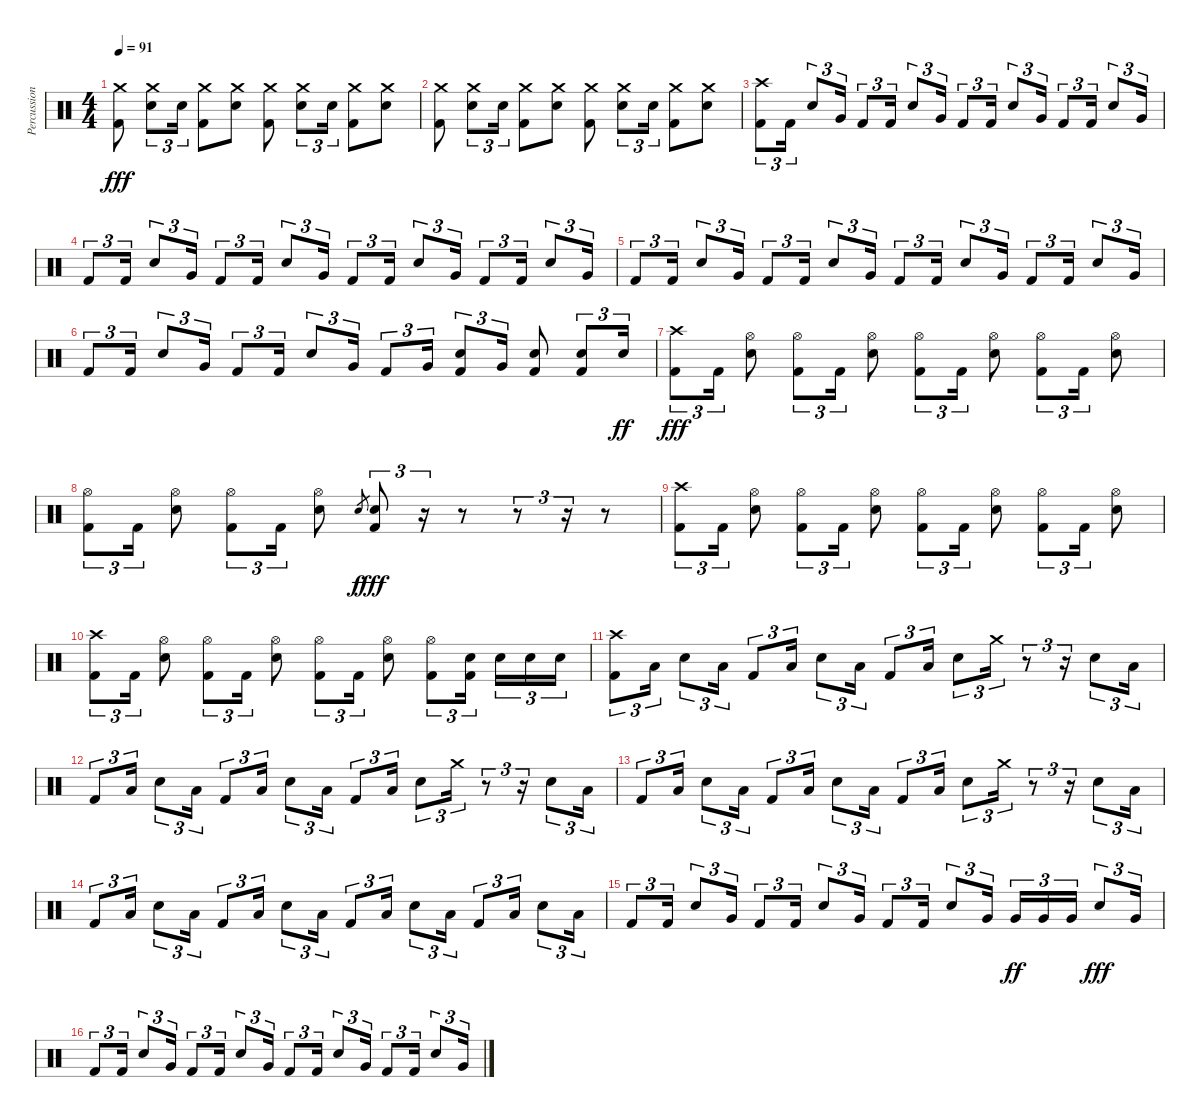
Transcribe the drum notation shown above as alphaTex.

\track ("Percussion" "Percussion") {instrument percussion}
\staff {score}
\articulation defaults
\ts (4 4)
\tempo 91
\clef neutral
\ks c
("Crash medium (hit)" "Kick (hit) 2").8{dy fff} ("Crash medium (hit)" "Electric Snare (hit)").8{tu (3 2)} "Electric Snare (hit)".16{tu (3 2)} ("Crash medium (hit)" "Kick (hit) 2").8 ("Crash medium (hit)" "Electric Snare (hit)").8 ("Crash medium (hit)" "Kick (hit) 2").8 ("Crash medium (hit)" "Electric Snare (hit)").8{tu (3 2)} "Electric Snare (hit)".16{tu (3 2)} ("Crash medium (hit)" "Kick (hit) 2").8 ("Crash medium (hit)" "Electric Snare (hit)").8 |
("Crash medium (hit)" "Kick (hit) 2").8 ("Crash medium (hit)" "Electric Snare (hit)").8{tu (3 2)} "Electric Snare (hit)".16{tu (3 2)} ("Crash medium (hit)" "Kick (hit) 2").8 ("Crash medium (hit)" "Electric Snare (hit)").8 ("Crash medium (hit)" "Kick (hit) 2").8 ("Crash medium (hit)" "Electric Snare (hit)").8{tu (3 2)} "Electric Snare (hit)".16{tu (3 2)} ("Crash medium (hit)" "Kick (hit) 2").8 ("Crash medium (hit)" "Electric Snare (hit)").8 |
("Crash high (hit)" "Kick (hit) 2").8{tu (3 2)} "Kick (hit) 2".16{tu (3 2)} "Electric Snare (hit)".8{tu (3 2)} "Very Low Tom (hit)".16{tu (3 2)} "Kick (hit) 2".8{tu (3 2)} "Kick (hit) 2".16{tu (3 2)} "Electric Snare (hit)".8{tu (3 2)} "Very Low Tom (hit)".16{tu (3 2)} "Kick (hit) 2".8{tu (3 2)} "Kick (hit) 2".16{tu (3 2)} "Electric Snare (hit)".8{tu (3 2)} "Very Low Tom (hit)".16{tu (3 2)} "Kick (hit) 2".8{tu (3 2)} "Kick (hit) 2".16{tu (3 2)} "Electric Snare (hit)".8{tu (3 2)} "Very Low Tom (hit)".16{tu (3 2)} |
"Kick (hit) 2".8{tu (3 2)} "Kick (hit) 2".16{tu (3 2)} "Electric Snare (hit)".8{tu (3 2)} "Very Low Tom (hit)".16{tu (3 2)} "Kick (hit) 2".8{tu (3 2)} "Kick (hit) 2".16{tu (3 2)} "Electric Snare (hit)".8{tu (3 2)} "Very Low Tom (hit)".16{tu (3 2)} "Kick (hit) 2".8{tu (3 2)} "Kick (hit) 2".16{tu (3 2)} "Electric Snare (hit)".8{tu (3 2)} "Very Low Tom (hit)".16{tu (3 2)} "Kick (hit) 2".8{tu (3 2)} "Kick (hit) 2".16{tu (3 2)} "Electric Snare (hit)".8{tu (3 2)} "Very Low Tom (hit)".16{tu (3 2)} |
"Kick (hit) 2".8{tu (3 2)} "Kick (hit) 2".16{tu (3 2)} "Electric Snare (hit)".8{tu (3 2)} "Very Low Tom (hit)".16{tu (3 2)} "Kick (hit) 2".8{tu (3 2)} "Kick (hit) 2".16{tu (3 2)} "Electric Snare (hit)".8{tu (3 2)} "Very Low Tom (hit)".16{tu (3 2)} "Kick (hit) 2".8{tu (3 2)} "Kick (hit) 2".16{tu (3 2)} "Electric Snare (hit)".8{tu (3 2)} "Very Low Tom (hit)".16{tu (3 2)} "Kick (hit) 2".8{tu (3 2)} "Kick (hit) 2".16{tu (3 2)} "Electric Snare (hit)".8{tu (3 2)} "Very Low Tom (hit)".16{tu (3 2)} |
"Kick (hit) 2".8{tu (3 2)} "Kick (hit) 2".16{tu (3 2)} "Electric Snare (hit)".8{tu (3 2)} "Very Low Tom (hit)".16{tu (3 2)} "Kick (hit) 2".8{tu (3 2)} "Kick (hit) 2".16{tu (3 2)} "Electric Snare (hit)".8{tu (3 2)} "Very Low Tom (hit)".16{tu (3 2)} "Kick (hit) 2".8{tu (3 2)} "Very Low Tom (hit)".16{tu (3 2)} ("Electric Snare (hit)" "Kick (hit) 2").8{tu (3 2)} "Very Low Tom (hit)".16{tu (3 2)} ("Electric Snare (hit)" "Kick (hit) 2").8 ("Electric Snare (hit)" "Kick (hit) 2").8{tu (3 2)} "Electric Snare (hit)".16{tu (3 2) dy ff} |
("Crash high (hit)" "Kick (hit) 2").8{tu (3 2) dy fff} "Kick (hit) 2".16{tu (3 2)} ("Hi-Hat (open)" "Electric Snare (hit)").8 ("Hi-Hat (open)" "Kick (hit) 2").8{tu (3 2)} "Kick (hit) 2".16{tu (3 2)} ("Hi-Hat (open)" "Electric Snare (hit)").8 ("Hi-Hat (open)" "Kick (hit) 2").8{tu (3 2)} "Kick (hit) 2".16{tu (3 2)} ("Hi-Hat (open)" "Electric Snare (hit)").8 ("Hi-Hat (open)" "Kick (hit) 2").8{tu (3 2)} "Kick (hit) 2".16{tu (3 2)} ("Hi-Hat (open)" "Electric Snare (hit)").8 |
("Hi-Hat (open)" "Kick (hit) 2").8{tu (3 2)} "Kick (hit) 2".16{tu (3 2)} ("Hi-Hat (open)" "Electric Snare (hit)").8 ("Hi-Hat (open)" "Kick (hit) 2").8{tu (3 2)} "Kick (hit) 2".16{tu (3 2)} ("Hi-Hat (open)" "Electric Snare (hit)").8 "Electric Snare (hit)".8{gr dy f} ("Electric Snare (hit)" "Kick (hit) 2").8{tu (3 2) dy fff} r.16{tu (3 2)} r.8 r.8{tu (3 2)} r.16{tu (3 2)} r.8 |
("Crash high (hit)" "Kick (hit) 2").8{tu (3 2)} "Kick (hit) 2".16{tu (3 2)} ("Hi-Hat (open)" "Electric Snare (hit)").8 ("Hi-Hat (open)" "Kick (hit) 2").8{tu (3 2)} "Kick (hit) 2".16{tu (3 2)} ("Hi-Hat (open)" "Electric Snare (hit)").8 ("Hi-Hat (open)" "Kick (hit) 2").8{tu (3 2)} "Kick (hit) 2".16{tu (3 2)} ("Hi-Hat (open)" "Electric Snare (hit)").8 ("Hi-Hat (open)" "Kick (hit) 2").8{tu (3 2)} "Kick (hit) 2".16{tu (3 2)} ("Hi-Hat (open)" "Electric Snare (hit)").8 |
("Crash high (hit)" "Kick (hit) 2").8{tu (3 2)} "Kick (hit) 2".16{tu (3 2)} ("Hi-Hat (open)" "Electric Snare (hit)").8 ("Hi-Hat (open)" "Kick (hit) 2").8{tu (3 2)} "Kick (hit) 2".16{tu (3 2)} ("Hi-Hat (open)" "Electric Snare (hit)").8 ("Hi-Hat (open)" "Kick (hit) 2").8{tu (3 2)} "Kick (hit) 2".16{tu (3 2)} ("Hi-Hat (open)" "Electric Snare (hit)").8 ("Hi-Hat (open)" "Kick (hit) 2").8{tu (3 2)} ("Electric Snare (hit)" "Kick (hit) 2").16{tu (3 2) beam splitsecondary} "Electric Snare (hit)".16{tu (3 2)} "Electric Snare (hit)".16{tu (3 2)} "Electric Snare (hit)".16{tu (3 2)} |
("Crash high (hit)" "Kick (hit) 2").8{tu (3 2)} "Low Floor Tom (hit)".16{tu (3 2)} "Electric Snare (hit)".8{tu (3 2)} "Low Floor Tom (hit)".16{tu (3 2)} "Kick (hit) 2".8{tu (3 2)} "Low Floor Tom (hit)".16{tu (3 2)} "Electric Snare (hit)".8{tu (3 2)} "Low Floor Tom (hit)".16{tu (3 2)} "Kick (hit) 2".8{tu (3 2)} "Low Floor Tom (hit)".16{tu (3 2)} "Electric Snare (hit)".8{tu (3 2)} "Crash medium (hit)".16{tu (3 2)} r.8{tu (3 2)} r.16{tu (3 2)} "Electric Snare (hit)".8{tu (3 2)} "Low Floor Tom (hit)".16{tu (3 2)} |
"Kick (hit) 2".8{tu (3 2)} "Low Floor Tom (hit)".16{tu (3 2)} "Electric Snare (hit)".8{tu (3 2)} "Low Floor Tom (hit)".16{tu (3 2)} "Kick (hit) 2".8{tu (3 2)} "Low Floor Tom (hit)".16{tu (3 2)} "Electric Snare (hit)".8{tu (3 2)} "Low Floor Tom (hit)".16{tu (3 2)} "Kick (hit) 2".8{tu (3 2)} "Low Floor Tom (hit)".16{tu (3 2)} "Electric Snare (hit)".8{tu (3 2)} "Crash medium (hit)".16{tu (3 2)} r.8{tu (3 2)} r.16{tu (3 2)} "Electric Snare (hit)".8{tu (3 2)} "Low Floor Tom (hit)".16{tu (3 2)} |
"Kick (hit) 2".8{tu (3 2)} "Low Floor Tom (hit)".16{tu (3 2)} "Electric Snare (hit)".8{tu (3 2)} "Low Floor Tom (hit)".16{tu (3 2)} "Kick (hit) 2".8{tu (3 2)} "Low Floor Tom (hit)".16{tu (3 2)} "Electric Snare (hit)".8{tu (3 2)} "Low Floor Tom (hit)".16{tu (3 2)} "Kick (hit) 2".8{tu (3 2)} "Low Floor Tom (hit)".16{tu (3 2)} "Electric Snare (hit)".8{tu (3 2)} "Crash medium (hit)".16{tu (3 2)} r.8{tu (3 2)} r.16{tu (3 2)} "Electric Snare (hit)".8{tu (3 2)} "Low Floor Tom (hit)".16{tu (3 2)} |
"Kick (hit) 2".8{tu (3 2)} "Low Floor Tom (hit)".16{tu (3 2)} "Electric Snare (hit)".8{tu (3 2)} "Low Floor Tom (hit)".16{tu (3 2)} "Kick (hit) 2".8{tu (3 2)} "Low Floor Tom (hit)".16{tu (3 2)} "Electric Snare (hit)".8{tu (3 2)} "Low Floor Tom (hit)".16{tu (3 2)} "Kick (hit) 2".8{tu (3 2)} "Low Floor Tom (hit)".16{tu (3 2)} "Electric Snare (hit)".8{tu (3 2)} "Low Floor Tom (hit)".16{tu (3 2)} "Kick (hit) 2".8{tu (3 2)} "Low Floor Tom (hit)".16{tu (3 2)} "Electric Snare (hit)".8{tu (3 2)} "Low Floor Tom (hit)".16{tu (3 2)} |
"Kick (hit) 2".8{tu (3 2)} "Kick (hit) 2".16{tu (3 2)} "Electric Snare (hit)".8{tu (3 2)} "Very Low Tom (hit)".16{tu (3 2)} "Kick (hit) 2".8{tu (3 2)} "Kick (hit) 2".16{tu (3 2)} "Electric Snare (hit)".8{tu (3 2)} "Very Low Tom (hit)".16{tu (3 2)} "Kick (hit) 2".8{tu (3 2)} "Kick (hit) 2".16{tu (3 2)} "Electric Snare (hit)".8{tu (3 2)} "Very Low Tom (hit)".16{tu (3 2)} "Very Low Tom (hit)".16{tu (3 2) dy ff} "Very Low Tom (hit)".16{tu (3 2)} "Very Low Tom (hit)".16{tu (3 2)} "Electric Snare (hit)".8{tu (3 2) dy fff} "Very Low Tom (hit)".16{tu (3 2)} |
"Kick (hit) 2".8{tu (3 2)} "Kick (hit) 2".16{tu (3 2)} "Electric Snare (hit)".8{tu (3 2)} "Very Low Tom (hit)".16{tu (3 2)} "Kick (hit) 2".8{tu (3 2)} "Kick (hit) 2".16{tu (3 2)} "Electric Snare (hit)".8{tu (3 2)} "Very Low Tom (hit)".16{tu (3 2)} "Kick (hit) 2".8{tu (3 2)} "Kick (hit) 2".16{tu (3 2)} "Electric Snare (hit)".8{tu (3 2)} "Very Low Tom (hit)".16{tu (3 2)} "Kick (hit) 2".8{tu (3 2)} "Kick (hit) 2".16{tu (3 2)} "Electric Snare (hit)".8{tu (3 2)} "Very Low Tom (hit)".16{tu (3 2)}
